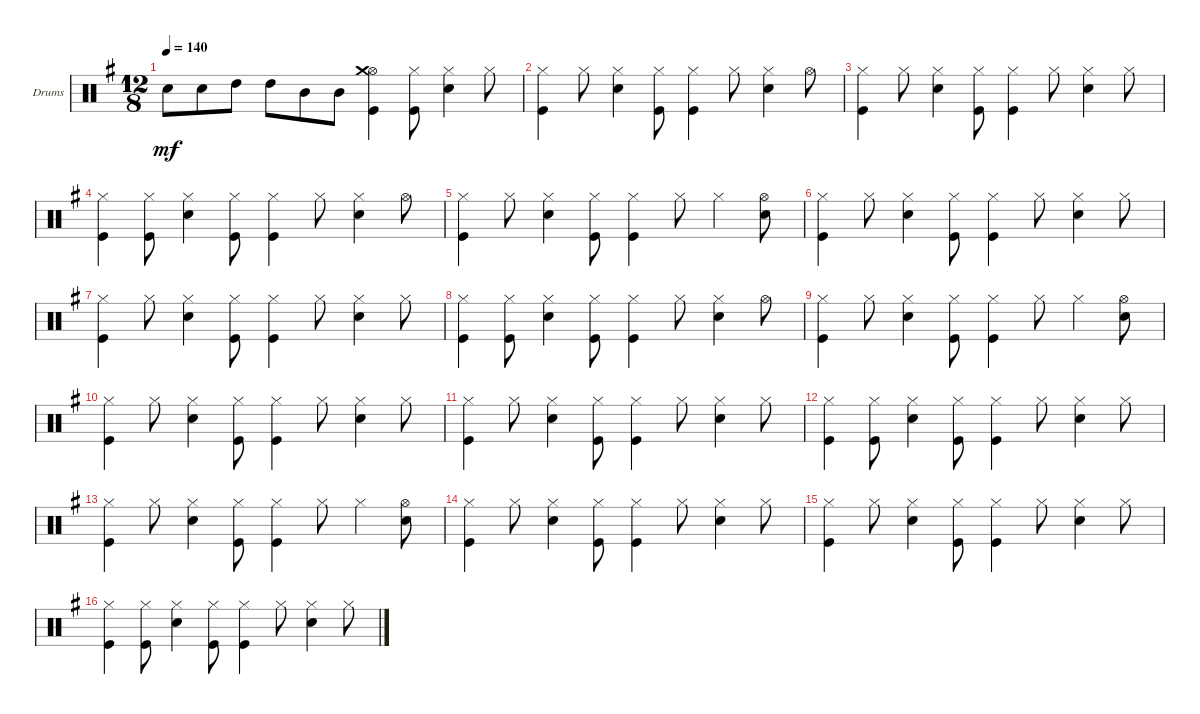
\defaultSystemsLayout 4
\bracketExtendMode groupsimilarinstruments
\firstSystemTrackNameOrientation horizontal
\otherSystemsTrackNameOrientation horizontal
\track ("Drumkit" "Drums") {instrument percussion}
\staff {score}
\articulation defaults
\ts (12 8)
\tempo 140
\clef neutral
\ks g "Snare (hit) 2".8{dy mf} "Snare (hit) 2".8 "High Tom (hit)".8 "High Tom (hit)".8 "Mid Tom (hit)".8 "Mid Tom (hit)".8
("Hi-Hat (open)" "Kick (hit)" "Crash medium (hit)").4 ("Hi-Hat (closed)" "Kick (hit)").8 ("Hi-Hat (closed)" "Snare (hit) 2").4 "Hi-Hat (closed)".8 |
("Hi-Hat (closed)" "Kick (hit)").4 "Hi-Hat (closed)".8 ("Hi-Hat (closed)" "Snare (hit) 2").4 ("Hi-Hat (closed)" "Kick (hit)").8 ("Kick (hit)" "Hi-Hat (closed)").4 "Hi-Hat (closed)".8 ("Hi-Hat (closed)" "Snare (hit) 2").4 "Hi-Hat (open)".8 |
("Hi-Hat (closed)" "Kick (hit)").4 "Hi-Hat (closed)".8 ("Hi-Hat (closed)" "Snare (hit) 2").4 ("Hi-Hat (closed)" "Kick (hit)").8 ("Kick (hit)" "Hi-Hat (closed)").4 "Hi-Hat (closed)".8 ("Hi-Hat (closed)" "Snare (hit) 2").4 "Hi-Hat (closed)".8 |
("Hi-Hat (closed)" "Kick (hit)").4 ("Hi-Hat (closed)" "Kick (hit)").8 ("Hi-Hat (closed)" "Snare (hit) 2").4 ("Hi-Hat (closed)" "Kick (hit)").8 ("Kick (hit)" "Hi-Hat (closed)").4 "Hi-Hat (closed)".8 ("Hi-Hat (closed)" "Snare (hit) 2").4 "Hi-Hat (open)".8 |
("Hi-Hat (closed)" "Kick (hit)").4 "Hi-Hat (closed)".8 ("Hi-Hat (closed)" "Snare (hit) 2").4 ("Hi-Hat (closed)" "Kick (hit)").8 ("Kick (hit)" "Hi-Hat (closed)").4 "Hi-Hat (closed)".8 "Hi-Hat (closed)".4 ("Hi-Hat (open)" "Snare (hit) 2").8 |
("Hi-Hat (closed)" "Kick (hit)").4 "Hi-Hat (closed)".8 ("Hi-Hat (closed)" "Snare (hit) 2").4 ("Hi-Hat (closed)" "Kick (hit)").8 ("Kick (hit)" "Hi-Hat (closed)").4 "Hi-Hat (closed)".8 ("Hi-Hat (closed)" "Snare (hit) 2").4 "Hi-Hat (closed)".8 |
("Hi-Hat (closed)" "Kick (hit)").4 "Hi-Hat (closed)".8 ("Hi-Hat (closed)" "Snare (hit) 2").4 ("Hi-Hat (closed)" "Kick (hit)").8 ("Kick (hit)" "Hi-Hat (closed)").4 "Hi-Hat (closed)".8 ("Hi-Hat (closed)" "Snare (hit) 2").4 "Hi-Hat (closed)".8 |
("Hi-Hat (closed)" "Kick (hit)").4 ("Hi-Hat (closed)" "Kick (hit)").8 ("Hi-Hat (closed)" "Snare (hit) 2").4 ("Hi-Hat (closed)" "Kick (hit)").8 ("Kick (hit)" "Hi-Hat (closed)").4 "Hi-Hat (closed)".8 ("Hi-Hat (closed)" "Snare (hit) 2").4 "Hi-Hat (open)".8 |
("Hi-Hat (closed)" "Kick (hit)").4 "Hi-Hat (closed)".8 ("Hi-Hat (closed)" "Snare (hit) 2").4 ("Hi-Hat (closed)" "Kick (hit)").8 ("Kick (hit)" "Hi-Hat (closed)").4 "Hi-Hat (closed)".8 "Hi-Hat (closed)".4 ("Hi-Hat (open)" "Snare (hit) 2").8 |
("Hi-Hat (closed)" "Kick (hit)").4 "Hi-Hat (closed)".8 ("Hi-Hat (closed)" "Snare (hit) 2").4 ("Hi-Hat (closed)" "Kick (hit)").8 ("Kick (hit)" "Hi-Hat (closed)").4 "Hi-Hat (closed)".8 ("Hi-Hat (closed)" "Snare (hit) 2").4 "Hi-Hat (closed)".8 |
("Hi-Hat (closed)" "Kick (hit)").4 "Hi-Hat (closed)".8 ("Hi-Hat (closed)" "Snare (hit) 2").4 ("Hi-Hat (closed)" "Kick (hit)").8 ("Kick (hit)" "Hi-Hat (closed)").4 "Hi-Hat (closed)".8 ("Hi-Hat (closed)" "Snare (hit) 2").4 "Hi-Hat (closed)".8 |
("Hi-Hat (closed)" "Kick (hit)").4 ("Hi-Hat (closed)" "Kick (hit)").8 ("Hi-Hat (closed)" "Snare (hit) 2").4 ("Hi-Hat (closed)" "Kick (hit)").8 ("Kick (hit)" "Hi-Hat (closed)").4 "Hi-Hat (closed)".8 ("Hi-Hat (closed)" "Snare (hit) 2").4 "Hi-Hat (closed)".8 |
("Hi-Hat (closed)" "Kick (hit)").4 "Hi-Hat (closed)".8 ("Hi-Hat (closed)" "Snare (hit) 2").4 ("Hi-Hat (closed)" "Kick (hit)").8 ("Kick (hit)" "Hi-Hat (closed)").4 "Hi-Hat (closed)".8 "Hi-Hat (closed)".4 ("Hi-Hat (open)" "Snare (hit) 2").8 |
("Hi-Hat (closed)" "Kick (hit)").4 "Hi-Hat (closed)".8 ("Hi-Hat (closed)" "Snare (hit) 2").4 ("Hi-Hat (closed)" "Kick (hit)").8 ("Kick (hit)" "Hi-Hat (closed)").4 "Hi-Hat (closed)".8 ("Hi-Hat (closed)" "Snare (hit) 2").4 "Hi-Hat (closed)".8 |
("Hi-Hat (closed)" "Kick (hit)").4 "Hi-Hat (closed)".8 ("Hi-Hat (closed)" "Snare (hit) 2").4 ("Hi-Hat (closed)" "Kick (hit)").8 ("Kick (hit)" "Hi-Hat (closed)").4 "Hi-Hat (closed)".8 ("Hi-Hat (closed)" "Snare (hit) 2").4 "Hi-Hat (closed)".8 |
("Hi-Hat (closed)" "Kick (hit)").4 ("Hi-Hat (closed)" "Kick (hit)").8 ("Hi-Hat (closed)" "Snare (hit) 2").4 ("Hi-Hat (closed)" "Kick (hit)").8 ("Kick (hit)" "Hi-Hat (closed)").4 "Hi-Hat (closed)".8 ("Hi-Hat (closed)" "Snare (hit) 2").4 "Hi-Hat (closed)".8
